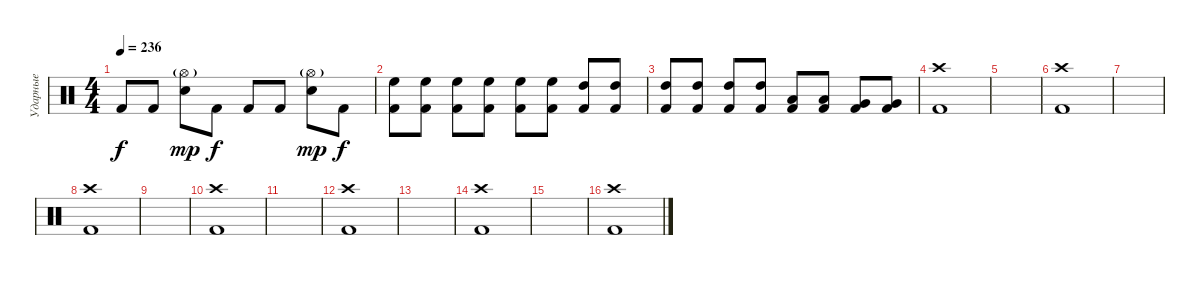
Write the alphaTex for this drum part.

\track ("Ударные" "Ударные") {instrument percussion}
\staff {score}
\articulation defaults
\ts (4 4)
\tempo 236
\clef neutral
\ks c "Kick (hit) 2".8{dy f} "Kick (hit) 2".8
("Hi-Hat (open)"{g} "Electric Snare (hit)").8{dy mp} "Kick (hit) 2".8{dy f} "Kick (hit) 2".8 "Kick (hit) 2".8 ("Hi-Hat (open)"{g} "Electric Snare (hit)").8{dy mp} "Kick (hit) 2".8{dy f} |
("High Floor Tom (hit)" "Kick (hit) 2").8 ("High Floor Tom (hit)" "Kick (hit) 2").8 ("High Floor Tom (hit)" "Kick (hit) 2").8 ("High Floor Tom (hit)" "Kick (hit) 2").8 ("High Floor Tom (hit)" "Kick (hit) 2").8 ("High Floor Tom (hit)" "Kick (hit) 2").8 ("High Tom (hit)" "Kick (hit) 2").8 ("High Tom (hit)" "Kick (hit) 2").8 |
("High Tom (hit)" "Kick (hit) 2").8 ("High Tom (hit)" "Kick (hit) 2").8 ("High Tom (hit)" "Kick (hit) 2").8 ("High Tom (hit)" "Kick (hit) 2").8 ("Low Tom (hit)" "Kick (hit) 2").8 ("Low Tom (hit)" "Kick (hit) 2").8 ("Very Low Tom (hit)" "Kick (hit) 2").8 ("Very Low Tom (hit)" "Kick (hit) 2").8 |
("Crash high (hit)" "Kick (hit) 2").1 |
|
("Crash high (hit)" "Kick (hit) 2").1 |
|
("Crash high (hit)" "Kick (hit) 2").1 |
|
("Crash high (hit)" "Kick (hit) 2").1 |
|
("Crash high (hit)" "Kick (hit) 2").1 |
|
("Crash high (hit)" "Kick (hit) 2").1 |
|
("Crash high (hit)" "Kick (hit) 2").1
